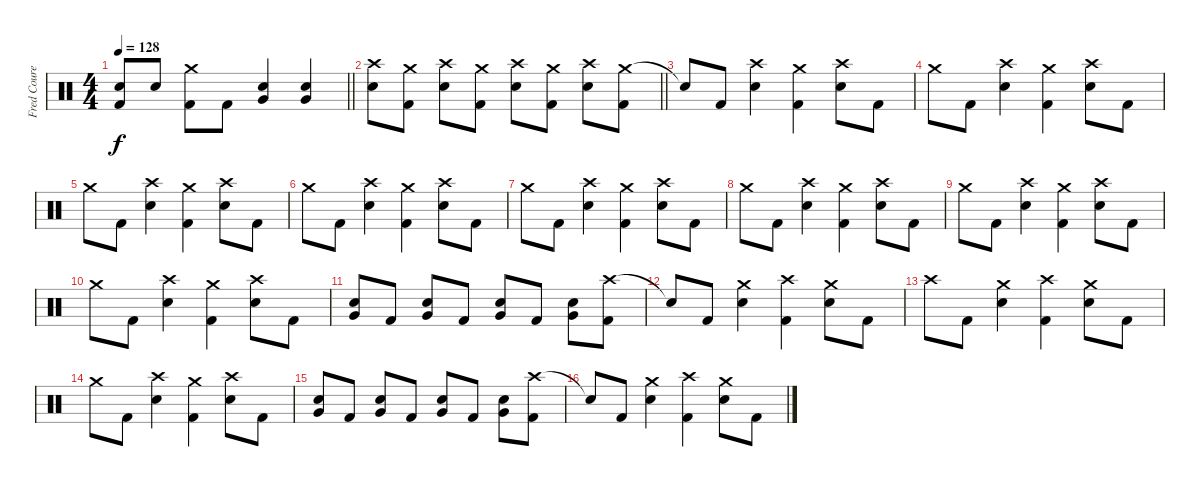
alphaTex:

\track ("Fred Courey" "Fred Coure") {instrument percussion}
\staff {score}
\articulation defaults
\ts (4 4)
\tempo 128
\clef neutral
\barLineRight lightlight
\ks c
("Snare (hit)"{t} "Kick (hit) 2").8{dy f} "Snare (hit) 2".8 ("Crash medium (hit)" "Kick (hit) 2").8 "Kick (hit) 2".8 ("Very Low Tom (hit)" "Snare (hit) 2").4 ("Very Low Tom (hit)" "Snare (hit) 2").4 |
\barLineRight lightlight
("Crash high (hit)" "Snare (hit) 2").8 ("Crash medium (hit)" "Kick (hit) 2").8 ("Crash high (hit)" "Snare (hit) 2").8 ("Crash medium (hit)" "Kick (hit) 2").8 ("Crash high (hit)" "Snare (hit) 2").8 ("Crash medium (hit)" "Kick (hit) 2").8 ("Crash high (hit)" "Snare (hit) 2").8 ("Crash medium (hit)" "Kick (hit) 2").8 |
"Snare (hit)"{t}.8 "Kick (hit) 2".8 ("Crash high (hit)" "Snare (hit) 2").4 ("Crash medium (hit)" "Kick (hit) 2").4 ("Crash high (hit)" "Snare (hit) 2").8 "Kick (hit) 2".8 |
"Crash medium (hit)".8 "Kick (hit) 2".8 ("Crash high (hit)" "Snare (hit) 2").4 ("Crash medium (hit)" "Kick (hit) 2").4 ("Crash high (hit)" "Snare (hit) 2").8 "Kick (hit) 2".8 |
"Crash medium (hit)".8 "Kick (hit) 2".8 ("Crash high (hit)" "Snare (hit) 2").4 ("Crash medium (hit)" "Kick (hit) 2").4 ("Crash high (hit)" "Snare (hit) 2").8 "Kick (hit) 2".8 |
"Crash medium (hit)".8 "Kick (hit) 2".8 ("Crash high (hit)" "Snare (hit) 2").4 ("Crash medium (hit)" "Kick (hit) 2").4 ("Crash high (hit)" "Snare (hit) 2").8 "Kick (hit) 2".8 |
"Crash medium (hit)".8 "Kick (hit) 2".8 ("Crash high (hit)" "Snare (hit) 2").4 ("Crash medium (hit)" "Kick (hit) 2").4 ("Crash high (hit)" "Snare (hit) 2").8 "Kick (hit) 2".8 |
"Crash medium (hit)".8 "Kick (hit) 2".8 ("Crash high (hit)" "Snare (hit) 2").4 ("Crash medium (hit)" "Kick (hit) 2").4 ("Crash high (hit)" "Snare (hit) 2").8 "Kick (hit) 2".8 |
"Crash medium (hit)".8 "Kick (hit) 2".8 ("Crash high (hit)" "Snare (hit) 2").4 ("Crash medium (hit)" "Kick (hit) 2").4 ("Crash high (hit)" "Snare (hit) 2").8 "Kick (hit) 2".8 |
"Crash medium (hit)".8 "Kick (hit) 2".8 ("Crash high (hit)" "Snare (hit) 2").4 ("Crash medium (hit)" "Kick (hit) 2").4 ("Crash high (hit)" "Snare (hit) 2").8 "Kick (hit) 2".8 |
("Very Low Tom (hit)" "Snare (hit) 2").8 "Kick (hit) 2".8 ("Very Low Tom (hit)" "Snare (hit) 2").8 "Kick (hit) 2".8 ("Very Low Tom (hit)" "Snare (hit) 2").8 "Kick (hit) 2".8 ("Very Low Tom (hit)" "Snare (hit) 2").8 ("Crash high (hit)" "Kick (hit) 2").8 |
"Snare (hit)"{t}.8 "Kick (hit) 2".8 ("Crash medium (hit)" "Snare (hit) 2").4 ("Crash high (hit)" "Kick (hit) 2").4 ("Crash medium (hit)" "Snare (hit) 2").8 "Kick (hit) 2".8 |
"Crash high (hit)".8 "Kick (hit) 2".8 ("Crash medium (hit)" "Snare (hit) 2").4 ("Crash high (hit)" "Kick (hit) 2").4 ("Crash medium (hit)" "Snare (hit) 2").8 "Kick (hit) 2".8 |
"Crash medium (hit)".8 "Kick (hit) 2".8 ("Crash high (hit)" "Snare (hit) 2").4 ("Crash medium (hit)" "Kick (hit) 2").4 ("Crash high (hit)" "Snare (hit) 2").8 "Kick (hit) 2".8 |
("Very Low Tom (hit)" "Snare (hit) 2").8 "Kick (hit) 2".8 ("Very Low Tom (hit)" "Snare (hit) 2").8 "Kick (hit) 2".8 ("Very Low Tom (hit)" "Snare (hit) 2").8 "Kick (hit) 2".8 ("Very Low Tom (hit)" "Snare (hit) 2").8 ("Crash high (hit)" "Kick (hit) 2").8 |
"Snare (hit)"{t}.8 "Kick (hit) 2".8 ("Crash medium (hit)" "Snare (hit) 2").4 ("Crash high (hit)" "Kick (hit) 2").4 ("Crash medium (hit)" "Snare (hit) 2").8 "Kick (hit) 2".8
